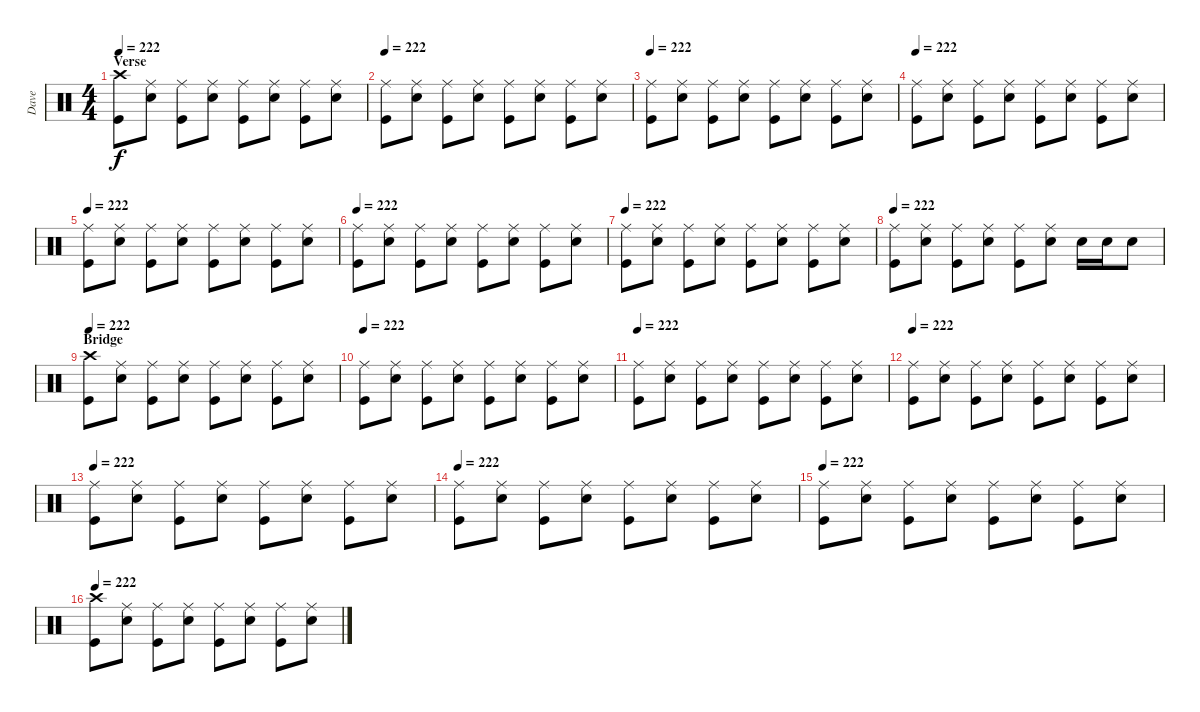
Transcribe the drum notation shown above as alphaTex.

\track ("Dave" "Dave") {instrument percussion}
\staff {score}
\articulation defaults
\ts (4 4)
\section ("" "Verse")
\tempo 222
\clef neutral
\ks c
("Crash high (hit)" "Kick (hit)").8{dy f} ("Ride (middle)" "Snare (hit) 2").8 ("Ride (middle)" "Kick (hit)").8 ("Ride (middle)" "Snare (hit) 2").8 ("Ride (middle)" "Kick (hit)").8 ("Ride (middle)" "Snare (hit) 2").8 ("Ride (middle)" "Kick (hit)").8 ("Ride (middle)" "Snare (hit) 2").8 |
\tempo 222
("Ride (middle)" "Kick (hit)").8 ("Ride (middle)" "Snare (hit) 2").8 ("Ride (middle)" "Kick (hit)").8 ("Ride (middle)" "Snare (hit) 2").8 ("Ride (middle)" "Kick (hit)").8 ("Ride (middle)" "Snare (hit) 2").8 ("Ride (middle)" "Kick (hit)").8 ("Ride (middle)" "Snare (hit) 2").8 |
\tempo 222
("Ride (middle)" "Kick (hit)").8 ("Ride (middle)" "Snare (hit) 2").8 ("Ride (middle)" "Kick (hit)").8 ("Ride (middle)" "Snare (hit) 2").8 ("Ride (middle)" "Kick (hit)").8 ("Ride (middle)" "Snare (hit) 2").8 ("Ride (middle)" "Kick (hit)").8 ("Ride (middle)" "Snare (hit) 2").8 |
\tempo 222
("Ride (middle)" "Kick (hit)").8 ("Ride (middle)" "Snare (hit) 2").8 ("Ride (middle)" "Kick (hit)").8 ("Ride (middle)" "Snare (hit) 2").8 ("Ride (middle)" "Kick (hit)").8 ("Ride (middle)" "Snare (hit) 2").8 ("Ride (middle)" "Kick (hit)").8 ("Ride (middle)" "Snare (hit) 2").8 |
\tempo 222
("Ride (middle)" "Kick (hit)").8 ("Ride (middle)" "Snare (hit) 2").8 ("Ride (middle)" "Kick (hit)").8 ("Ride (middle)" "Snare (hit) 2").8 ("Ride (middle)" "Kick (hit)").8 ("Ride (middle)" "Snare (hit) 2").8 ("Ride (middle)" "Kick (hit)").8 ("Ride (middle)" "Snare (hit) 2").8 |
\tempo 222
("Ride (middle)" "Kick (hit)").8 ("Ride (middle)" "Snare (hit) 2").8 ("Ride (middle)" "Kick (hit)").8 ("Ride (middle)" "Snare (hit) 2").8 ("Ride (middle)" "Kick (hit)").8 ("Ride (middle)" "Snare (hit) 2").8 ("Ride (middle)" "Kick (hit)").8 ("Ride (middle)" "Snare (hit) 2").8 |
\tempo 222
("Ride (middle)" "Kick (hit)").8 ("Ride (middle)" "Snare (hit) 2").8 ("Ride (middle)" "Kick (hit)").8 ("Ride (middle)" "Snare (hit) 2").8 ("Ride (middle)" "Kick (hit)").8 ("Ride (middle)" "Snare (hit) 2").8 ("Ride (middle)" "Kick (hit)").8 ("Ride (middle)" "Snare (hit) 2").8 |
\tempo 222
("Ride (middle)" "Kick (hit)").8 ("Ride (middle)" "Snare (hit) 2").8 ("Ride (middle)" "Kick (hit)").8 ("Ride (middle)" "Snare (hit) 2").8 ("Ride (middle)" "Kick (hit)").8 ("Ride (middle)" "Snare (hit) 2").8 "Snare (hit) 2".16 "Snare (hit) 2".16 "Snare (hit) 2".8 |
\section ("" "Bridge")
\tempo 222
("Crash high (hit)" "Kick (hit)").8 ("Ride (middle)" "Snare (hit) 2").8 ("Ride (middle)" "Kick (hit)").8 ("Ride (middle)" "Snare (hit) 2").8 ("Ride (middle)" "Kick (hit)").8 ("Ride (middle)" "Snare (hit) 2").8 ("Ride (middle)" "Kick (hit)").8 ("Ride (middle)" "Snare (hit) 2").8 |
\tempo 222
("Ride (middle)" "Kick (hit)").8 ("Ride (middle)" "Snare (hit) 2").8 ("Ride (middle)" "Kick (hit)").8 ("Ride (middle)" "Snare (hit) 2").8 ("Ride (middle)" "Kick (hit)").8 ("Ride (middle)" "Snare (hit) 2").8 ("Ride (middle)" "Kick (hit)").8 ("Ride (middle)" "Snare (hit) 2").8 |
\tempo 222
("Ride (middle)" "Kick (hit)").8 ("Ride (middle)" "Snare (hit) 2").8 ("Ride (middle)" "Kick (hit)").8 ("Ride (middle)" "Snare (hit) 2").8 ("Ride (middle)" "Kick (hit)").8 ("Ride (middle)" "Snare (hit) 2").8 ("Ride (middle)" "Kick (hit)").8 ("Ride (middle)" "Snare (hit) 2").8 |
\tempo 222
("Ride (middle)" "Kick (hit)").8 ("Ride (middle)" "Snare (hit) 2").8 ("Ride (middle)" "Kick (hit)").8 ("Ride (middle)" "Snare (hit) 2").8 ("Ride (middle)" "Kick (hit)").8 ("Ride (middle)" "Snare (hit) 2").8 ("Ride (middle)" "Kick (hit)").8 ("Ride (middle)" "Snare (hit) 2").8 |
\tempo 222
("Ride (middle)" "Kick (hit)").8 ("Ride (middle)" "Snare (hit) 2").8 ("Ride (middle)" "Kick (hit)").8 ("Ride (middle)" "Snare (hit) 2").8 ("Ride (middle)" "Kick (hit)").8 ("Ride (middle)" "Snare (hit) 2").8 ("Ride (middle)" "Kick (hit)").8 ("Ride (middle)" "Snare (hit) 2").8 |
\tempo 222
("Ride (middle)" "Kick (hit)").8 ("Ride (middle)" "Snare (hit) 2").8 ("Ride (middle)" "Kick (hit)").8 ("Ride (middle)" "Snare (hit) 2").8 ("Ride (middle)" "Kick (hit)").8 ("Ride (middle)" "Snare (hit) 2").8 ("Ride (middle)" "Kick (hit)").8 ("Ride (middle)" "Snare (hit) 2").8 |
\tempo 222
("Ride (middle)" "Kick (hit)").8 ("Ride (middle)" "Snare (hit) 2").8 ("Ride (middle)" "Kick (hit)").8 ("Ride (middle)" "Snare (hit) 2").8 ("Ride (middle)" "Kick (hit)").8 ("Ride (middle)" "Snare (hit) 2").8 ("Ride (middle)" "Kick (hit)").8 ("Ride (middle)" "Snare (hit) 2").8 |
\tempo 222
("Crash high (hit)" "Kick (hit)").8 ("Ride (middle)" "Snare (hit) 2").8 ("Ride (middle)" "Kick (hit)").8 ("Ride (middle)" "Snare (hit) 2").8 ("Ride (middle)" "Kick (hit)").8 ("Ride (middle)" "Snare (hit) 2").8 ("Ride (middle)" "Kick (hit)").8 ("Ride (middle)" "Snare (hit) 2").8
